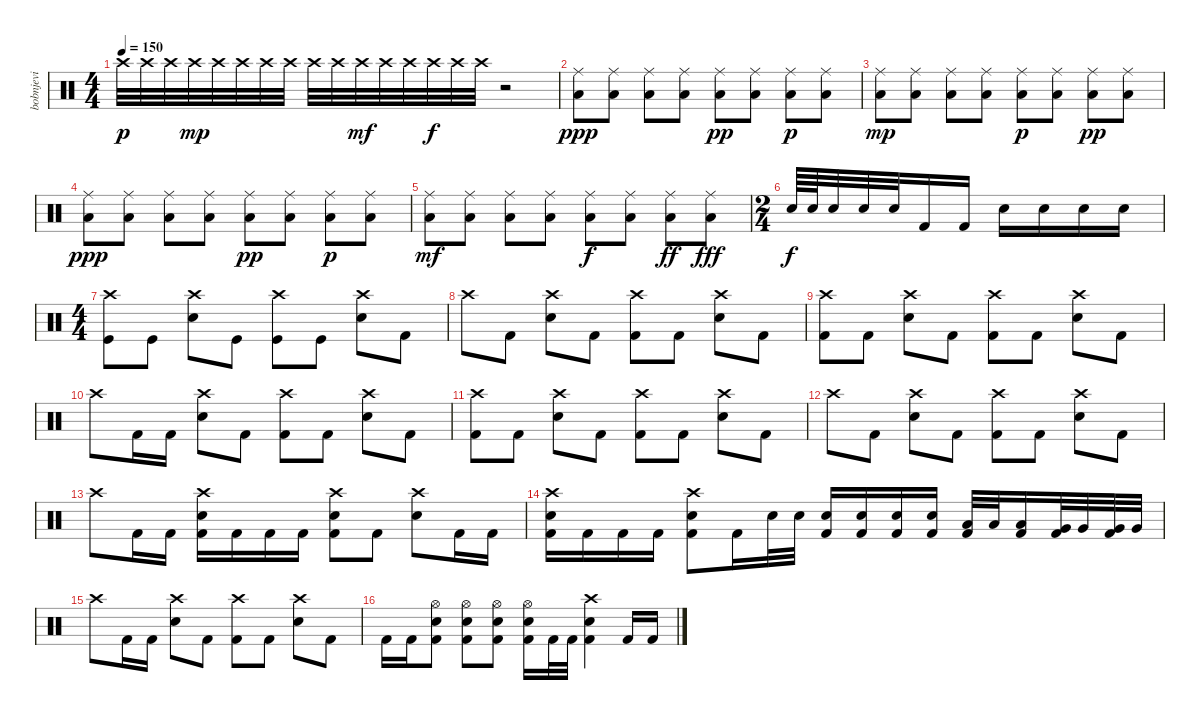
\track ("bobnjevi" "bobnjevi") {instrument percussion}
\staff {score}
\articulation defaults
\ts (4 4)
\tempo 150
\clef neutral
\ks c "Crash high (hit)".32{dy p} "Crash high (hit)".32 "Crash high (hit)".32 "Crash high (hit)".32{dy mp} "Crash high (hit)".32 "Crash high (hit)".32 "Crash high (hit)".32 "Crash high (hit)".32 "Crash high (hit)".32 "Crash high (hit)".32 "Crash high (hit)".32{dy mf} "Crash high (hit)".32 "Crash high (hit)".32 "Crash high (hit)".32{dy f} "Crash high (hit)".32 "Crash high (hit)".32
r.2 |
("Ride (middle)" "Low Floor Tom (hit)").8{dy ppp} ("Ride (middle)" "Low Floor Tom (hit)").8 ("Ride (middle)" "Low Floor Tom (hit)").8 ("Ride (middle)" "Low Floor Tom (hit)").8 ("Ride (middle)" "Low Floor Tom (hit)").8{dy pp} ("Ride (middle)" "Low Floor Tom (hit)").8 ("Ride (middle)" "Low Floor Tom (hit)").8{dy p} ("Ride (middle)" "Low Floor Tom (hit)").8 |
("Ride (middle)" "Low Floor Tom (hit)").8{dy mp} ("Ride (middle)" "Low Floor Tom (hit)").8 ("Ride (middle)" "Low Floor Tom (hit)").8 ("Ride (middle)" "Low Floor Tom (hit)").8 ("Ride (middle)" "Low Floor Tom (hit)").8{dy p} ("Ride (middle)" "Low Floor Tom (hit)").8 ("Ride (middle)" "Low Floor Tom (hit)").8{dy pp} ("Ride (middle)" "Low Floor Tom (hit)").8 |
("Ride (middle)" "Low Floor Tom (hit)").8{dy ppp} ("Ride (middle)" "Low Floor Tom (hit)").8 ("Ride (middle)" "Low Floor Tom (hit)").8 ("Ride (middle)" "Low Floor Tom (hit)").8 ("Ride (middle)" "Low Floor Tom (hit)").8{dy pp} ("Ride (middle)" "Low Floor Tom (hit)").8 ("Ride (middle)" "Low Floor Tom (hit)").8{dy p} ("Ride (middle)" "Low Floor Tom (hit)").8 |
("Ride (middle)" "Low Floor Tom (hit)").8{dy mf} ("Ride (middle)" "Low Floor Tom (hit)").8 ("Ride (middle)" "Low Floor Tom (hit)").8 ("Ride (middle)" "Low Floor Tom (hit)").8 ("Ride (middle)" "Low Floor Tom (hit)").8{dy f} ("Ride (middle)" "Low Floor Tom (hit)").8 ("Ride (middle)" "Low Floor Tom (hit)").8{dy ff} ("Ride (middle)" "Low Floor Tom (hit)").8{dy fff} |
\ts (2 4)
"Electric Snare (hit)".64{dy f} "Electric Snare (hit)".64 "Electric Snare (hit)".32 "Electric Snare (hit)".32 "Electric Snare (hit)".32 "Kick (hit) 2".16 "Kick (hit) 2".16 "Electric Snare (hit)".16 "Electric Snare (hit)".16 "Electric Snare (hit)".16 "Electric Snare (hit)".16 |
\ts (4 4)
("Crash high (hit)" "Kick (hit)").8 "Kick (hit)".8 ("Crash high (hit)" "Snare (hit) 2").8 "Kick (hit)".8 ("Crash high (hit)" "Kick (hit)").8 "Kick (hit)".8 ("Crash high (hit)" "Snare (hit) 2").8 "Kick (hit) 2".8 |
"Crash high (hit)".8 "Kick (hit) 2".8 ("Crash high (hit)" "Snare (hit) 2").8 "Kick (hit) 2".8 ("Crash high (hit)" "Kick (hit) 2").8 "Kick (hit) 2".8 ("Crash high (hit)" "Snare (hit) 2").8 "Kick (hit) 2".8 |
("Crash high (hit)" "Kick (hit) 2").8 "Kick (hit) 2".8 ("Crash high (hit)" "Snare (hit) 2").8 "Kick (hit) 2".8 ("Crash high (hit)" "Kick (hit) 2").8 "Kick (hit) 2".8 ("Crash high (hit)" "Snare (hit) 2").8 "Kick (hit) 2".8 |
"Crash high (hit)".8 "Kick (hit) 2".16 "Kick (hit) 2".16 ("Crash high (hit)" "Snare (hit) 2").8 "Kick (hit) 2".8 ("Crash high (hit)" "Kick (hit) 2").8 "Kick (hit) 2".8 ("Crash high (hit)" "Snare (hit) 2").8 "Kick (hit) 2".8 |
("Crash high (hit)" "Kick (hit) 2").8 "Kick (hit) 2".8 ("Crash high (hit)" "Snare (hit) 2").8 "Kick (hit) 2".8 ("Crash high (hit)" "Kick (hit) 2").8 "Kick (hit) 2".8 ("Crash high (hit)" "Snare (hit) 2").8 "Kick (hit) 2".8 |
"Crash high (hit)".8 "Kick (hit) 2".8 ("Crash high (hit)" "Snare (hit) 2").8 "Kick (hit) 2".8 ("Crash high (hit)" "Kick (hit) 2").8 "Kick (hit) 2".8 ("Crash high (hit)" "Snare (hit) 2").8 "Kick (hit) 2".8 |
"Crash high (hit)".8 "Kick (hit) 2".16 "Kick (hit) 2".16 ("Crash high (hit)" "Electric Snare (hit)" "Kick (hit) 2").16 "Kick (hit) 2".16 "Kick (hit) 2".16 "Kick (hit) 2".16 ("Crash high (hit)" "Electric Snare (hit)" "Kick (hit) 2").8 "Kick (hit) 2".8 ("Crash high (hit)" "Electric Snare (hit)").8 "Kick (hit) 2".16 "Kick (hit) 2".16 |
("Crash high (hit)" "Electric Snare (hit)" "Kick (hit) 2").16 "Kick (hit) 2".16 "Kick (hit) 2".16 "Kick (hit) 2".16 ("Crash high (hit)" "Electric Snare (hit)" "Kick (hit) 2").8 "Kick (hit) 2".16 "Electric Snare (hit)".32 "Electric Snare (hit)".32 ("Electric Snare (hit)" "Kick (hit) 2").16 ("Electric Snare (hit)" "Kick (hit) 2").16 ("Electric Snare (hit)" "Kick (hit) 2").16 ("Electric Snare (hit)" "Kick (hit) 2").16 ("Low Tom (hit)" "Kick (hit) 2").32 "Low Tom (hit)".32 ("Low Tom (hit)" "Kick (hit) 2").16 ("Very Low Tom (hit)" "Kick (hit) 2").32 "Very Low Tom (hit)".32 ("Very Low Tom (hit)" "Kick (hit) 2").32 "Very Low Tom (hit)".32 |
"Crash high (hit)".8 "Kick (hit) 2".16 "Kick (hit) 2".16 ("Crash high (hit)" "Snare (hit) 2").8 "Kick (hit) 2".8 ("Crash high (hit)" "Kick (hit) 2").8 "Kick (hit) 2".8 ("Crash high (hit)" "Snare (hit) 2").8 "Kick (hit) 2".8 |
"Kick (hit) 2".16 "Kick (hit) 2".16 ("Hi-Hat (open)" "Electric Snare (hit)" "Kick (hit) 2").8 ("Hi-Hat (open)" "Electric Snare (hit)" "Kick (hit) 2").8 ("Hi-Hat (open)" "Electric Snare (hit)" "Kick (hit) 2").8 ("Hi-Hat (open)" "Electric Snare (hit)" "Kick (hit) 2").16 "Kick (hit) 2".32 "Kick (hit) 2".32 ("Crash high (hit)" "Electric Snare (hit)" "Kick (hit) 2").4 "Kick (hit) 2".16 "Kick (hit) 2".16
